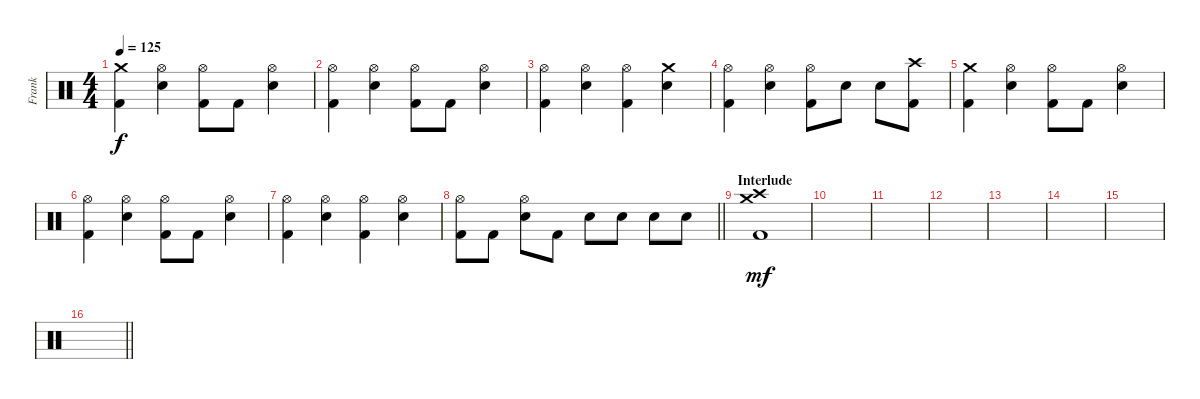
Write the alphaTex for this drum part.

\track ("Frank" "Frank") {instrument percussion}
\staff {score}
\articulation defaults
\ts (4 4)
\tempo 125
\clef neutral
\ks c
("Crash medium (hit)" "Kick (hit) 2").4{dy f} ("Hi-Hat (open)" "Electric Snare (hit)").4 ("Hi-Hat (open)" "Kick (hit) 2").8 "Kick (hit) 2".8 ("Hi-Hat (open)" "Electric Snare (hit)").4 |
("Hi-Hat (open)" "Kick (hit) 2").4 ("Hi-Hat (open)" "Electric Snare (hit)").4 ("Hi-Hat (open)" "Kick (hit) 2").8 "Kick (hit) 2".8 ("Hi-Hat (open)" "Electric Snare (hit)").4 |
("Hi-Hat (open)" "Kick (hit) 2").4 ("Hi-Hat (open)" "Electric Snare (hit)").4 ("Hi-Hat (open)" "Kick (hit) 2").4 ("Crash medium (hit)" "Electric Snare (hit)").4 |
("Hi-Hat (open)" "Kick (hit) 2").4 ("Hi-Hat (open)" "Electric Snare (hit)").4 ("Hi-Hat (open)" "Kick (hit) 2").8 "Electric Snare (hit)".8 "Electric Snare (hit)".8 ("Crash high (hit)" "Kick (hit) 2").8 |
("Crash medium (hit)" "Kick (hit) 2").4 ("Hi-Hat (open)" "Electric Snare (hit)").4 ("Hi-Hat (open)" "Kick (hit) 2").8 "Kick (hit) 2".8 ("Hi-Hat (open)" "Electric Snare (hit)").4 |
("Hi-Hat (open)" "Kick (hit) 2").4 ("Hi-Hat (open)" "Electric Snare (hit)").4 ("Hi-Hat (open)" "Kick (hit) 2").8 "Kick (hit) 2".8 ("Hi-Hat (open)" "Electric Snare (hit)").4 |
("Hi-Hat (open)" "Kick (hit) 2").4 ("Hi-Hat (open)" "Electric Snare (hit)").4 ("Hi-Hat (open)" "Kick (hit) 2").4 ("Hi-Hat (open)" "Electric Snare (hit)").4 |
\barLineRight lightlight
("Hi-Hat (open)" "Kick (hit) 2").8 "Kick (hit) 2".8 ("Hi-Hat (open)" "Electric Snare (hit)").8 "Kick (hit) 2".8 "Electric Snare (hit)".8 "Electric Snare (hit)".8 "Electric Snare (hit)".8 "Electric Snare (hit)".8 |
\section ("" "Interlude")
("Crash medium (hit)" "Crash high (hit)" "Kick (hit) 2").1{dy mf} |
|
|
|
|
|
|
\barLineRight lightlight
